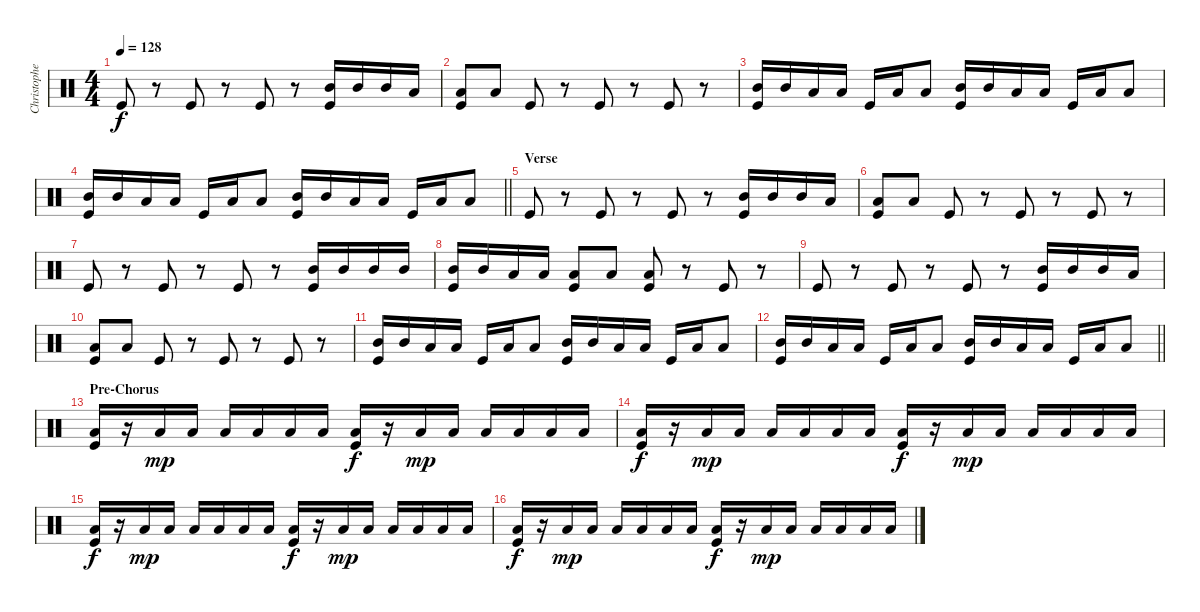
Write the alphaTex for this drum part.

\track ("Christopher - Drums" "Christophe") {instrument percussion}
\staff {score}
\articulation defaults
\ts (4 4)
\tempo 128
\clef neutral
\ks c "Kick (hit)".8{dy f}
r.8 "Kick (hit)".8 r.8 "Kick (hit)".8 r.8 ("Mid Tom (hit)" "Kick (hit)").16 "Mid Tom (hit)".16 "Mid Tom (hit)".16 "Low Tom (hit)".16 |
("Low Floor Tom (hit)" "Kick (hit)").8 "Low Floor Tom (hit)".8 "Kick (hit)".8 r.8 "Kick (hit)".8 r.8 "Kick (hit)".8 r.8 |
("Mid Tom (hit)" "Kick (hit)").16 "Mid Tom (hit)".16 "Low Tom (hit)".16 "Low Floor Tom (hit)".16 "Kick (hit)".16 "Low Tom (hit)".16 "Low Floor Tom (hit)".8 ("Mid Tom (hit)" "Kick (hit)").16 "Mid Tom (hit)".16 "Low Tom (hit)".16 "Low Floor Tom (hit)".16 "Kick (hit)".16 "Low Tom (hit)".16 "Low Floor Tom (hit)".8 |
\barLineRight lightlight
("Mid Tom (hit)" "Kick (hit)").16 "Mid Tom (hit)".16 "Low Tom (hit)".16 "Low Floor Tom (hit)".16 "Kick (hit)".16 "Low Tom (hit)".16 "Low Floor Tom (hit)".8 ("Mid Tom (hit)" "Kick (hit)").16 "Mid Tom (hit)".16 "Low Tom (hit)".16 "Low Floor Tom (hit)".16 "Kick (hit)".16 "Low Tom (hit)".16 "Low Floor Tom (hit)".8 |
\section ("" "Verse")
"Kick (hit)".8 r.8 "Kick (hit)".8 r.8 "Kick (hit)".8 r.8 ("Mid Tom (hit)" "Kick (hit)").16 "Mid Tom (hit)".16 "Mid Tom (hit)".16 "Low Tom (hit)".16 |
("Low Floor Tom (hit)" "Kick (hit)").8 "Low Floor Tom (hit)".8 "Kick (hit)".8 r.8 "Kick (hit)".8 r.8 "Kick (hit)".8 r.8 |
"Kick (hit)".8 r.8 "Kick (hit)".8 r.8 "Kick (hit)".8 r.8 ("Mid Tom (hit)" "Kick (hit)").16 "Mid Tom (hit)".16 "Mid Tom (hit)".16 "Mid Tom (hit)".16 |
("Mid Tom (hit)" "Kick (hit)").16 "Mid Tom (hit)".16 "Low Tom (hit)".16 "Low Tom (hit)".16 ("Low Floor Tom (hit)" "Kick (hit)").8 "Low Floor Tom (hit)".8 ("Low Floor Tom (hit)" "Kick (hit)").8 r.8 "Kick (hit)".8 r.8 |
"Kick (hit)".8 r.8 "Kick (hit)".8 r.8 "Kick (hit)".8 r.8 ("Mid Tom (hit)" "Kick (hit)").16 "Mid Tom (hit)".16 "Mid Tom (hit)".16 "Low Tom (hit)".16 |
("Low Floor Tom (hit)" "Kick (hit)").8 "Low Floor Tom (hit)".8 "Kick (hit)".8 r.8 "Kick (hit)".8 r.8 "Kick (hit)".8 r.8 |
("Mid Tom (hit)" "Kick (hit)").16 "Mid Tom (hit)".16 "Low Tom (hit)".16 "Low Floor Tom (hit)".16 "Kick (hit)".16 "Low Tom (hit)".16 "Low Floor Tom (hit)".8 ("Mid Tom (hit)" "Kick (hit)").16 "Mid Tom (hit)".16 "Low Tom (hit)".16 "Low Floor Tom (hit)".16 "Kick (hit)".16 "Low Tom (hit)".16 "Low Floor Tom (hit)".8 |
\barLineRight lightlight
("Mid Tom (hit)" "Kick (hit)").16 "Mid Tom (hit)".16 "Low Tom (hit)".16 "Low Floor Tom (hit)".16 "Kick (hit)".16 "Low Tom (hit)".16 "Low Floor Tom (hit)".8 ("Mid Tom (hit)" "Kick (hit)").16 "Mid Tom (hit)".16 "Low Tom (hit)".16 "Low Floor Tom (hit)".16 "Kick (hit)".16 "Low Tom (hit)".16 "Low Floor Tom (hit)".8 |
\section ("" "Pre-Chorus")
("Low Floor Tom (hit)" "Kick (hit)").16 r.16 "Low Tom (hit)".16{dy mp} "Low Tom (hit)".16 "Low Tom (hit)".16 "Low Tom (hit)".16 "Low Tom (hit)".16 "Low Tom (hit)".16 ("Low Floor Tom (hit)" "Kick (hit)").16{dy f} r.16 "Low Tom (hit)".16{dy mp} "Low Tom (hit)".16 "Low Tom (hit)".16 "Low Tom (hit)".16 "Low Tom (hit)".16 "Low Tom (hit)".16 |
("Low Floor Tom (hit)" "Kick (hit)").16{dy f} r.16 "Low Tom (hit)".16{dy mp} "Low Tom (hit)".16 "Low Tom (hit)".16 "Low Tom (hit)".16 "Low Tom (hit)".16 "Low Tom (hit)".16 ("Low Floor Tom (hit)" "Kick (hit)").16{dy f} r.16 "Low Tom (hit)".16{dy mp} "Low Tom (hit)".16 "Low Tom (hit)".16 "Low Tom (hit)".16 "Low Tom (hit)".16 "Low Tom (hit)".16 |
("Low Floor Tom (hit)" "Kick (hit)").16{dy f} r.16 "Low Tom (hit)".16{dy mp} "Low Tom (hit)".16 "Low Tom (hit)".16 "Low Tom (hit)".16 "Low Tom (hit)".16 "Low Tom (hit)".16 ("Low Floor Tom (hit)" "Kick (hit)").16{dy f} r.16 "Low Tom (hit)".16{dy mp} "Low Tom (hit)".16 "Low Tom (hit)".16 "Low Tom (hit)".16 "Low Tom (hit)".16 "Low Tom (hit)".16 |
("Low Floor Tom (hit)" "Kick (hit)").16{dy f} r.16 "Low Tom (hit)".16{dy mp} "Low Tom (hit)".16 "Low Tom (hit)".16 "Low Tom (hit)".16 "Low Tom (hit)".16 "Low Tom (hit)".16 ("Low Floor Tom (hit)" "Kick (hit)").16{dy f} r.16 "Low Tom (hit)".16{dy mp} "Low Tom (hit)".16 "Low Tom (hit)".16 "Low Tom (hit)".16 "Low Tom (hit)".16 "Low Tom (hit)".16
